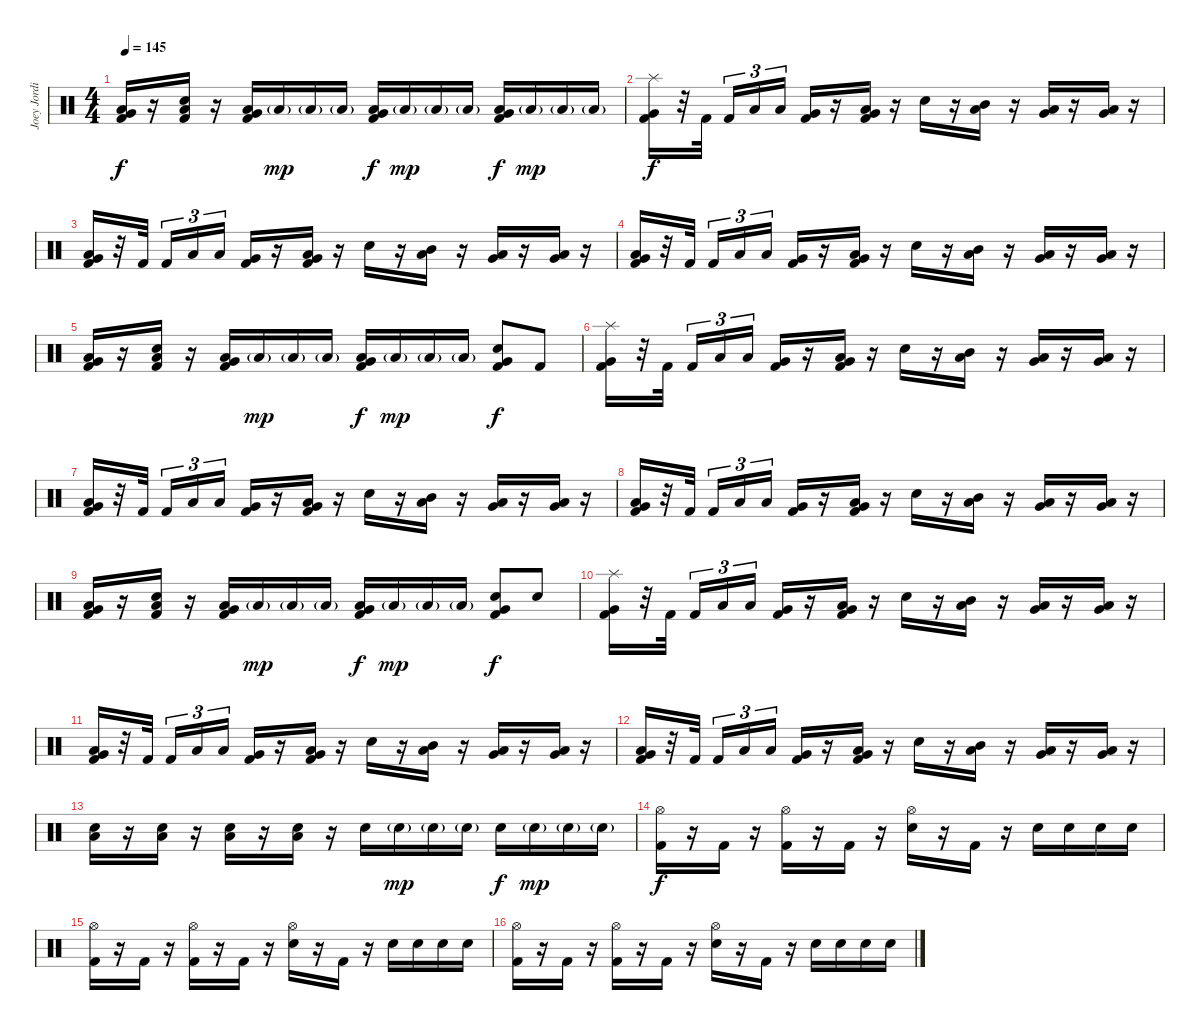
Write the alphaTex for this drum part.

\track ("Joey Jordison" "Joey Jordi") {instrument percussion}
\staff {score}
\articulation defaults
\ts (4 4)
\tempo 145
\clef neutral
\ks c
("Very Low Tom (hit)" "Low Floor Tom (hit)" "Kick (hit) 2").16{dy f} r.16 ("Snare (hit)" "Low Floor Tom (hit)" "Kick (hit) 2").16 r.16 ("Very Low Tom (hit)" "Low Floor Tom (hit)" "Kick (hit) 2").16 "Low Floor Tom (hit)"{g}.16{dy mp} "Low Floor Tom (hit)"{g}.16 "Low Floor Tom (hit)"{g}.16 ("Very Low Tom (hit)" "Low Floor Tom (hit)" "Kick (hit) 2").16{dy f} "Low Floor Tom (hit)"{g}.16{dy mp} "Low Floor Tom (hit)"{g}.16 "Low Floor Tom (hit)"{g}.16 ("Very Low Tom (hit)" "Low Floor Tom (hit)" "Kick (hit) 2").16{dy f} "Low Floor Tom (hit)"{g}.16{dy mp} "Low Floor Tom (hit)"{g}.16 "Low Floor Tom (hit)"{g}.16 |
("Very Low Tom (hit)" "Splash (hit)" "Kick (hit) 2").16{dy f} r.32 "Kick (hit) 2".32{beam splitsecondary} "Kick (hit) 2".16{tu (3 2)} "Low Tom (hit)".16{tu (3 2)} "Low Floor Tom (hit)".16{tu (3 2)} ("Very Low Tom (hit)" "Kick (hit) 2").16 r.16 ("Very Low Tom (hit)" "Low Floor Tom (hit)" "Kick (hit) 2").16 r.16 "Electric Snare (hit)".16 r.16 ("Mid Tom (hit)" "Low Tom (hit)").16 r.16 ("Low Tom (hit)" "Very Low Tom (hit)").16 r.16 ("Low Tom (hit)" "Very Low Tom (hit)").16 r.16 |
("Very Low Tom (hit)" "Low Floor Tom (hit)" "Kick (hit) 2").16 r.32 "Kick (hit) 2".32{beam splitsecondary} "Kick (hit) 2".16{tu (3 2)} "Low Tom (hit)".16{tu (3 2)} "Low Floor Tom (hit)".16{tu (3 2)} ("Very Low Tom (hit)" "Kick (hit) 2").16 r.16 ("Very Low Tom (hit)" "Low Floor Tom (hit)" "Kick (hit) 2").16 r.16 "Electric Snare (hit)".16 r.16 ("Mid Tom (hit)" "Low Tom (hit)").16 r.16 ("Low Tom (hit)" "Very Low Tom (hit)").16 r.16 ("Low Tom (hit)" "Very Low Tom (hit)").16 r.16 |
("Very Low Tom (hit)" "Low Floor Tom (hit)" "Kick (hit) 2").16 r.32 "Kick (hit) 2".32{beam splitsecondary} "Kick (hit) 2".16{tu (3 2)} "Low Tom (hit)".16{tu (3 2)} "Low Floor Tom (hit)".16{tu (3 2)} ("Very Low Tom (hit)" "Kick (hit) 2").16 r.16 ("Very Low Tom (hit)" "Low Floor Tom (hit)" "Kick (hit) 2").16 r.16 "Electric Snare (hit)".16 r.16 ("Mid Tom (hit)" "Low Tom (hit)").16 r.16 ("Low Tom (hit)" "Very Low Tom (hit)").16 r.16 ("Low Tom (hit)" "Very Low Tom (hit)").16 r.16 |
("Very Low Tom (hit)" "Low Floor Tom (hit)" "Kick (hit) 2").16 r.16 ("Snare (hit)" "Low Floor Tom (hit)" "Kick (hit) 2").16 r.16 ("Very Low Tom (hit)" "Low Floor Tom (hit)" "Kick (hit) 2").16 "Low Floor Tom (hit)"{g}.16{dy mp} "Low Floor Tom (hit)"{g}.16 "Low Floor Tom (hit)"{g}.16 ("Very Low Tom (hit)" "Low Floor Tom (hit)" "Kick (hit) 2").16{dy f} "Low Floor Tom (hit)"{g}.16{dy mp} "Low Floor Tom (hit)"{g}.16 "Low Floor Tom (hit)"{g}.16 ("Very Low Tom (hit)" "Electric Snare (hit)" "Kick (hit) 2").8{dy f} "Kick (hit) 2".8 |
("Very Low Tom (hit)" "Splash (hit)" "Kick (hit) 2").16 r.32 "Kick (hit) 2".32{beam splitsecondary} "Kick (hit) 2".16{tu (3 2)} "Low Tom (hit)".16{tu (3 2)} "Low Floor Tom (hit)".16{tu (3 2)} ("Very Low Tom (hit)" "Kick (hit) 2").16 r.16 ("Very Low Tom (hit)" "Low Floor Tom (hit)" "Kick (hit) 2").16 r.16 "Electric Snare (hit)".16 r.16 ("Mid Tom (hit)" "Low Tom (hit)").16 r.16 ("Low Tom (hit)" "Very Low Tom (hit)").16 r.16 ("Low Tom (hit)" "Very Low Tom (hit)").16 r.16 |
("Very Low Tom (hit)" "Low Floor Tom (hit)" "Kick (hit) 2").16 r.32 "Kick (hit) 2".32{beam splitsecondary} "Kick (hit) 2".16{tu (3 2)} "Low Tom (hit)".16{tu (3 2)} "Low Floor Tom (hit)".16{tu (3 2)} ("Very Low Tom (hit)" "Kick (hit) 2").16 r.16 ("Very Low Tom (hit)" "Low Floor Tom (hit)" "Kick (hit) 2").16 r.16 "Electric Snare (hit)".16 r.16 ("Mid Tom (hit)" "Low Tom (hit)").16 r.16 ("Low Tom (hit)" "Very Low Tom (hit)").16 r.16 ("Low Tom (hit)" "Very Low Tom (hit)").16 r.16 |
("Very Low Tom (hit)" "Low Floor Tom (hit)" "Kick (hit) 2").16 r.32 "Kick (hit) 2".32{beam splitsecondary} "Kick (hit) 2".16{tu (3 2)} "Low Tom (hit)".16{tu (3 2)} "Low Floor Tom (hit)".16{tu (3 2)} ("Very Low Tom (hit)" "Kick (hit) 2").16 r.16 ("Very Low Tom (hit)" "Low Floor Tom (hit)" "Kick (hit) 2").16 r.16 "Electric Snare (hit)".16 r.16 ("Mid Tom (hit)" "Low Tom (hit)").16 r.16 ("Low Tom (hit)" "Very Low Tom (hit)").16 r.16 ("Low Tom (hit)" "Very Low Tom (hit)").16 r.16 |
("Very Low Tom (hit)" "Low Floor Tom (hit)" "Kick (hit) 2").16 r.16 ("Snare (hit)" "Low Floor Tom (hit)" "Kick (hit) 2").16 r.16 ("Very Low Tom (hit)" "Low Floor Tom (hit)" "Kick (hit) 2").16 "Low Floor Tom (hit)"{g}.16{dy mp} "Low Floor Tom (hit)"{g}.16 "Low Floor Tom (hit)"{g}.16 ("Very Low Tom (hit)" "Low Floor Tom (hit)" "Kick (hit) 2").16{dy f} "Low Floor Tom (hit)"{g}.16{dy mp} "Low Floor Tom (hit)"{g}.16 "Low Floor Tom (hit)"{g}.16 ("Very Low Tom (hit)" "Electric Snare (hit)" "Kick (hit) 2").8{dy f} "Electric Snare (hit)".8 |
("Very Low Tom (hit)" "Splash (hit)" "Kick (hit) 2").16 r.32 "Kick (hit) 2".32{beam splitsecondary} "Kick (hit) 2".16{tu (3 2)} "Low Tom (hit)".16{tu (3 2)} "Low Floor Tom (hit)".16{tu (3 2)} ("Very Low Tom (hit)" "Kick (hit) 2").16 r.16 ("Very Low Tom (hit)" "Low Floor Tom (hit)" "Kick (hit) 2").16 r.16 "Electric Snare (hit)".16 r.16 ("Mid Tom (hit)" "Low Tom (hit)").16 r.16 ("Low Tom (hit)" "Very Low Tom (hit)").16 r.16 ("Low Tom (hit)" "Very Low Tom (hit)").16 r.16 |
("Very Low Tom (hit)" "Low Floor Tom (hit)" "Kick (hit) 2").16 r.32 "Kick (hit) 2".32{beam splitsecondary} "Kick (hit) 2".16{tu (3 2)} "Low Tom (hit)".16{tu (3 2)} "Low Floor Tom (hit)".16{tu (3 2)} ("Very Low Tom (hit)" "Kick (hit) 2").16 r.16 ("Very Low Tom (hit)" "Low Floor Tom (hit)" "Kick (hit) 2").16 r.16 "Electric Snare (hit)".16 r.16 ("Mid Tom (hit)" "Low Tom (hit)").16 r.16 ("Low Tom (hit)" "Very Low Tom (hit)").16 r.16 ("Low Tom (hit)" "Very Low Tom (hit)").16 r.16 |
("Very Low Tom (hit)" "Low Floor Tom (hit)" "Kick (hit) 2").16 r.32 "Kick (hit) 2".32{beam splitsecondary} "Kick (hit) 2".16{tu (3 2)} "Low Tom (hit)".16{tu (3 2)} "Low Floor Tom (hit)".16{tu (3 2)} ("Very Low Tom (hit)" "Kick (hit) 2").16 r.16 ("Very Low Tom (hit)" "Low Floor Tom (hit)" "Kick (hit) 2").16 r.16 "Electric Snare (hit)".16 r.16 ("Mid Tom (hit)" "Low Tom (hit)").16 r.16 ("Low Tom (hit)" "Very Low Tom (hit)").16 r.16 ("Low Tom (hit)" "Very Low Tom (hit)").16 r.16 |
("Electric Snare (hit)" "Low Floor Tom (hit)").16 r.16 ("Electric Snare (hit)" "Low Floor Tom (hit)").16 r.16 ("Electric Snare (hit)" "Low Floor Tom (hit)").16 r.16 ("Electric Snare (hit)" "Low Floor Tom (hit)").16 r.16 "Electric Snare (hit)".16 "Electric Snare (hit)"{g}.16{dy mp} "Electric Snare (hit)"{g}.16 "Electric Snare (hit)"{g}.16 "Electric Snare (hit)".16{dy f} "Electric Snare (hit)"{g}.16{dy mp} "Electric Snare (hit)"{g}.16 "Electric Snare (hit)"{g}.16 |
("Hi-Hat (open)" "Kick (hit) 2").16{dy f} r.16 "Kick (hit) 2".16 r.16 ("Hi-Hat (open)" "Kick (hit) 2").16 r.16 "Kick (hit) 2".16 r.16 ("Hi-Hat (open)" "Electric Snare (hit)").16 r.16 "Kick (hit) 2".16 r.16 "Electric Snare (hit)".16 "Electric Snare (hit)".16 "Electric Snare (hit)".16 "Electric Snare (hit)".16 |
("Hi-Hat (open)" "Kick (hit) 2").16 r.16 "Kick (hit) 2".16 r.16 ("Hi-Hat (open)" "Kick (hit) 2").16 r.16 "Kick (hit) 2".16 r.16 ("Hi-Hat (open)" "Electric Snare (hit)").16 r.16 "Kick (hit) 2".16 r.16 "Electric Snare (hit)".16 "Electric Snare (hit)".16 "Electric Snare (hit)".16 "Electric Snare (hit)".16 |
("Hi-Hat (open)" "Kick (hit) 2").16 r.16 "Kick (hit) 2".16 r.16 ("Hi-Hat (open)" "Kick (hit) 2").16 r.16 "Kick (hit) 2".16 r.16 ("Hi-Hat (open)" "Electric Snare (hit)").16 r.16 "Kick (hit) 2".16 r.16 "Electric Snare (hit)".16 "Electric Snare (hit)".16 "Electric Snare (hit)".16 "Electric Snare (hit)".16
